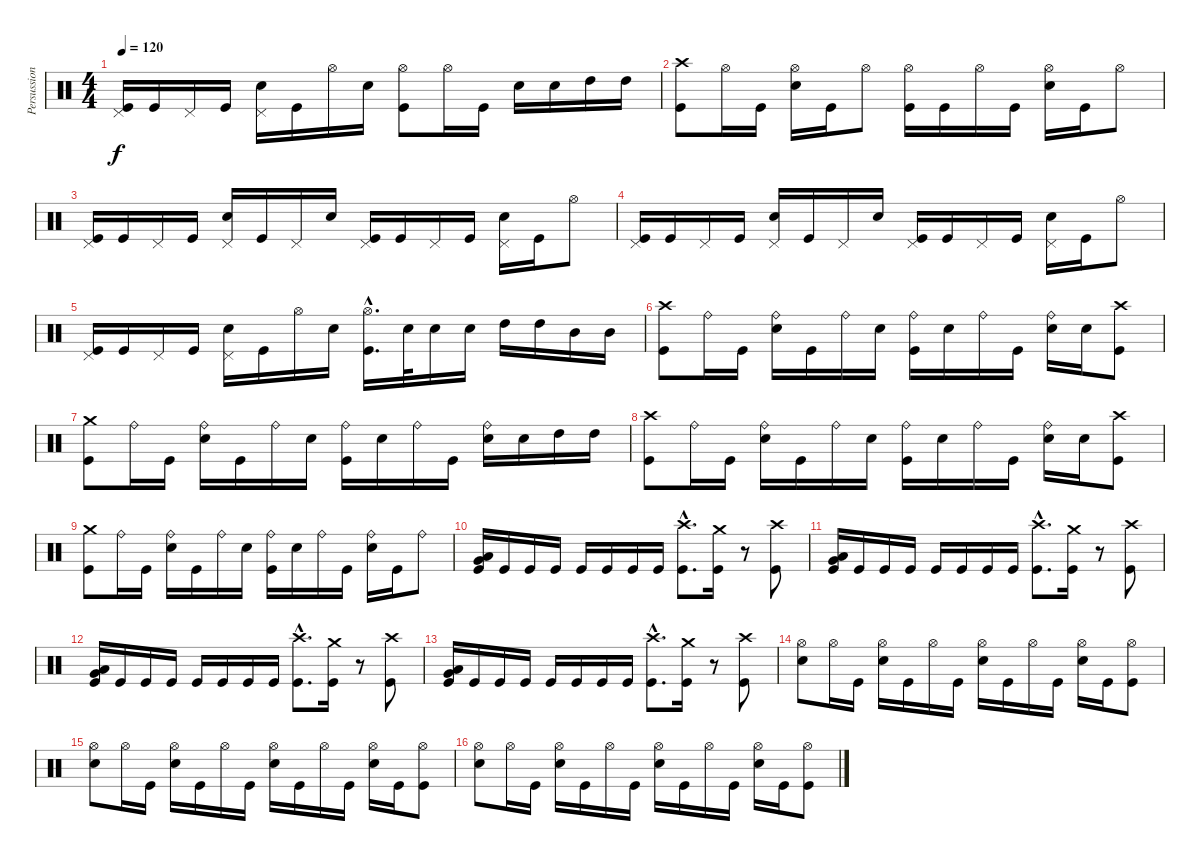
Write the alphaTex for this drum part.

\track ("Persussion" "Persussion") {instrument percussion}
\staff {score}
\articulation defaults
\ts (4 4)
\tempo 120
\clef neutral
\ks c
("Pedal Hi-Hat (hit)" "Kick (hit)").16{dy f} "Kick (hit)".16 "Pedal Hi-Hat (hit)".16 "Kick (hit)".16 ("Pedal Hi-Hat (hit)" "Snare (hit) 2").16 "Kick (hit)".16 "Hi-Hat (open)".16 "Snare (hit) 2".16 ("Hi-Hat (open)" "Kick (hit)").8 "Hi-Hat (open)".16 "Kick (hit)".16 "Snare (hit) 2".16 "Snare (hit) 2".16 "High Tom (hit)".16 "High Tom (hit)".16 |
("Crash high (hit)" "Kick (hit)").8 "Hi-Hat (open)".16 "Kick (hit)".16 ("Hi-Hat (open)" "Snare (hit) 2").16 "Kick (hit)".16 "Hi-Hat (open)".8 ("Hi-Hat (open)" "Kick (hit)").16 "Kick (hit)".16 "Hi-Hat (open)".16 "Kick (hit)".16 ("Hi-Hat (open)" "Snare (hit) 2").16 "Kick (hit)".16 "Hi-Hat (open)".8 |
("Pedal Hi-Hat (hit)" "Kick (hit)").16 "Kick (hit)".16 "Pedal Hi-Hat (hit)".16 "Kick (hit)".16 ("Pedal Hi-Hat (hit)" "Snare (hit) 2").16 "Kick (hit)".16 "Pedal Hi-Hat (hit)".16 "Snare (hit) 2".16 ("Pedal Hi-Hat (hit)" "Kick (hit)").16 "Kick (hit)".16 "Pedal Hi-Hat (hit)".16 "Kick (hit)".16 ("Pedal Hi-Hat (hit)" "Snare (hit) 2").16 "Kick (hit)".16 "Hi-Hat (open)".8 |
("Pedal Hi-Hat (hit)" "Kick (hit)").16 "Kick (hit)".16 "Pedal Hi-Hat (hit)".16 "Kick (hit)".16 ("Pedal Hi-Hat (hit)" "Snare (hit) 2").16 "Kick (hit)".16 "Pedal Hi-Hat (hit)".16 "Snare (hit) 2".16 ("Pedal Hi-Hat (hit)" "Kick (hit)").16 "Kick (hit)".16 "Pedal Hi-Hat (hit)".16 "Kick (hit)".16 ("Pedal Hi-Hat (hit)" "Snare (hit) 2").16 "Kick (hit)".16 "Hi-Hat (open)".8 |
("Pedal Hi-Hat (hit)" "Kick (hit)").16 "Kick (hit)".16 "Pedal Hi-Hat (hit)".16 "Kick (hit)".16 ("Pedal Hi-Hat (hit)" "Snare (hit) 2").16 "Kick (hit)".16 "Hi-Hat (open)".16 "Snare (hit) 2".16 ("Hi-Hat (open)"{hac} "Kick (hit)"{hac}).16{d} "Snare (hit) 2".32 "Snare (hit) 2".16 "Snare (hit) 2".16 "High Tom (hit)".16 "High Tom (hit)".16 "Mid Tom (hit)".16 "Mid Tom (hit)".16 |
("Crash high (hit)" "Kick (hit)").8 "Ride (bell)".16 "Kick (hit)".16 ("Ride (bell)" "Snare (hit) 2").16 "Kick (hit)".16 "Ride (bell)".16 "Snare (hit) 2".16 ("Ride (bell)" "Kick (hit)").16 "Snare (hit) 2".16 "Ride (bell)".16 "Kick (hit)".16 ("Ride (bell)" "Snare (hit) 2").16 "Snare (hit) 2".16 ("Crash high (hit)" "Kick (hit)").8 |
("Crash medium (hit)" "Kick (hit)").8 "Ride (bell)".16 "Kick (hit)".16 ("Ride (bell)" "Snare (hit) 2").16 "Kick (hit)".16 "Ride (bell)".16 "Snare (hit) 2".16 ("Ride (bell)" "Kick (hit)").16 "Snare (hit) 2".16 "Ride (bell)".16 "Kick (hit)".16 ("Ride (bell)" "Snare (hit) 2").16 "Snare (hit) 2".16 "High Tom (hit)".16 "High Tom (hit)".16 |
("Crash high (hit)" "Kick (hit)").8 "Ride (bell)".16 "Kick (hit)".16 ("Ride (bell)" "Snare (hit) 2").16 "Kick (hit)".16 "Ride (bell)".16 "Snare (hit) 2".16 ("Ride (bell)" "Kick (hit)").16 "Snare (hit) 2".16 "Ride (bell)".16 "Kick (hit)".16 ("Ride (bell)" "Snare (hit) 2").16 "Snare (hit) 2".16 ("Crash high (hit)" "Kick (hit)").8 |
("Crash medium (hit)" "Kick (hit)").8 "Ride (bell)".16 "Kick (hit)".16 ("Ride (bell)" "Snare (hit) 2").16 "Kick (hit)".16 "Ride (bell)".16 "Snare (hit) 2".16 ("Ride (bell)" "Kick (hit)").16 "Snare (hit) 2".16 "Ride (bell)".16 "Kick (hit)".16 ("Ride (bell)" "Snare (hit) 2").16 "Kick (hit)".16 "Ride (bell)".8 |
("Very Low Tom (hit)" "Low Floor Tom (hit)" "Kick (hit)").16 "Kick (hit)".16 "Kick (hit)".16 "Kick (hit)".16 "Kick (hit)".16 "Kick (hit)".16 "Kick (hit)".16 "Kick (hit)".16 ("Crash high (hit)"{hac} "Kick (hit)"{hac}).8{d} ("Crash medium (hit)" "Kick (hit)").16 r.8 ("Crash high (hit)" "Kick (hit)").8 |
("Very Low Tom (hit)" "Low Floor Tom (hit)" "Kick (hit)").16 "Kick (hit)".16 "Kick (hit)".16 "Kick (hit)".16 "Kick (hit)".16 "Kick (hit)".16 "Kick (hit)".16 "Kick (hit)".16 ("Crash high (hit)"{hac} "Kick (hit)"{hac}).8{d} ("Crash medium (hit)" "Kick (hit)").16 r.8 ("Crash high (hit)" "Kick (hit)").8 |
("Very Low Tom (hit)" "Low Floor Tom (hit)" "Kick (hit)").16 "Kick (hit)".16 "Kick (hit)".16 "Kick (hit)".16 "Kick (hit)".16 "Kick (hit)".16 "Kick (hit)".16 "Kick (hit)".16 ("Crash high (hit)"{hac} "Kick (hit)"{hac}).8{d} ("Crash medium (hit)" "Kick (hit)").16 r.8 ("Crash high (hit)" "Kick (hit)").8 |
("Very Low Tom (hit)" "Low Floor Tom (hit)" "Kick (hit)").16 "Kick (hit)".16 "Kick (hit)".16 "Kick (hit)".16 "Kick (hit)".16 "Kick (hit)".16 "Kick (hit)".16 "Kick (hit)".16 ("Crash high (hit)"{hac} "Kick (hit)"{hac}).8{d} ("Crash medium (hit)" "Kick (hit)").16 r.8 ("Crash high (hit)" "Kick (hit)").8 |
("Hi-Hat (open)" "Snare (hit) 2").8 "Hi-Hat (open)".16 "Kick (hit)".16 ("Hi-Hat (open)" "Snare (hit) 2").16 "Kick (hit)".16 "Hi-Hat (open)".16 "Kick (hit)".16 ("Hi-Hat (open)" "Snare (hit) 2").16 "Kick (hit)".16 "Hi-Hat (open)".16 "Kick (hit)".16 ("Hi-Hat (open)" "Snare (hit) 2").16 "Kick (hit)".16 ("Hi-Hat (open)" "Kick (hit)").8 |
("Hi-Hat (open)" "Snare (hit) 2").8 "Hi-Hat (open)".16 "Kick (hit)".16 ("Hi-Hat (open)" "Snare (hit) 2").16 "Kick (hit)".16 "Hi-Hat (open)".16 "Kick (hit)".16 ("Hi-Hat (open)" "Snare (hit) 2").16 "Kick (hit)".16 "Hi-Hat (open)".16 "Kick (hit)".16 ("Hi-Hat (open)" "Snare (hit) 2").16 "Kick (hit)".16 ("Hi-Hat (open)" "Kick (hit)").8 |
("Hi-Hat (open)" "Snare (hit) 2").8 "Hi-Hat (open)".16 "Kick (hit)".16 ("Hi-Hat (open)" "Snare (hit) 2").16 "Kick (hit)".16 "Hi-Hat (open)".16 "Kick (hit)".16 ("Hi-Hat (open)" "Snare (hit) 2").16 "Kick (hit)".16 "Hi-Hat (open)".16 "Kick (hit)".16 ("Hi-Hat (open)" "Snare (hit) 2").16 "Kick (hit)".16 ("Hi-Hat (open)" "Kick (hit)").8
